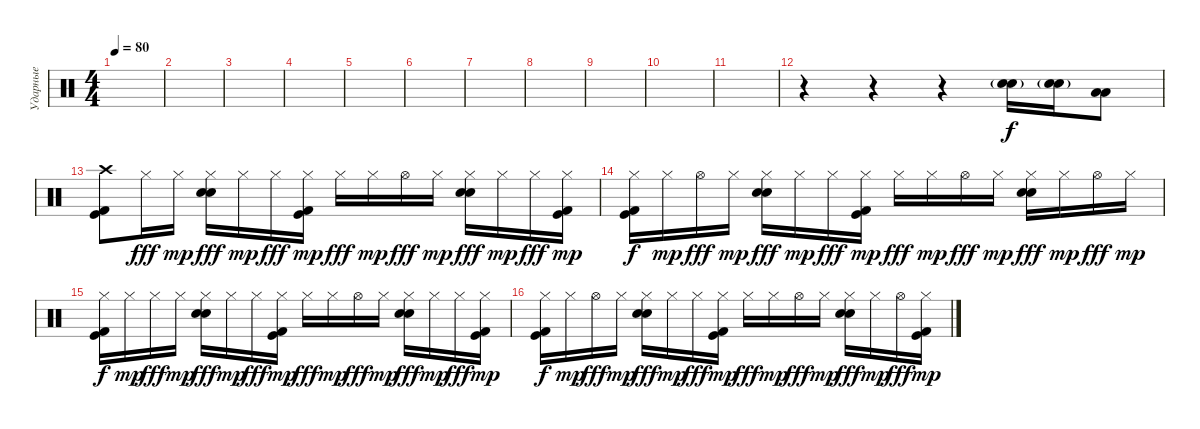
\track ("Ударные" "Ударные") {instrument percussion}
\staff {score}
\articulation defaults
\ts (4 4)
\tempo 80
\clef neutral
\ks c
|
|
|
|
|
|
|
|
|
|
|
r.4 r.4 r.4 ("Electric Snare (hit)"{g} "Snare (hit) 2"{g}).16 ("Electric Snare (hit)"{g} "Snare (hit) 2"{g}).16 ("Low Tom (hit)" "Low Floor Tom (hit)").8{dy f} |
("Kick (hit) 2" "Kick (hit)" "Crash high (hit)").8 "Hi-Hat (closed)".16{dy fff} "Hi-Hat (closed)".16{dy mp} ("Snare (hit) 2" "Electric Snare (hit)" "Hi-Hat (closed)").16{dy fff} "Hi-Hat (closed)".16{dy mp} "Hi-Hat (closed)".16{dy fff} ("Kick (hit) 2" "Kick (hit)" "Hi-Hat (closed)").16{dy mp} "Hi-Hat (closed)".16{dy fff} "Hi-Hat (closed)".16{dy mp} "Hi-Hat (open)".16{dy fff} "Hi-Hat (closed)".16{dy mp} ("Snare (hit) 2" "Electric Snare (hit)" "Hi-Hat (closed)").16{dy fff} "Hi-Hat (closed)".16{dy mp} "Hi-Hat (closed)".16{dy fff} ("Kick (hit) 2" "Kick (hit)" "Hi-Hat (closed)").16{dy mp} |
("Kick (hit) 2" "Kick (hit)" "Hi-Hat (closed)").16{dy f} "Hi-Hat (closed)".16{dy mp} "Hi-Hat (open)".16{dy fff} "Hi-Hat (closed)".16{dy mp} ("Snare (hit) 2" "Electric Snare (hit)" "Hi-Hat (closed)").16{dy fff} "Hi-Hat (closed)".16{dy mp} "Hi-Hat (closed)".16{dy fff} ("Kick (hit) 2" "Kick (hit)" "Hi-Hat (closed)").16{dy mp} "Hi-Hat (closed)".16{dy fff} "Hi-Hat (closed)".16{dy mp} "Hi-Hat (open)".16{dy fff} "Hi-Hat (closed)".16{dy mp} ("Snare (hit) 2" "Electric Snare (hit)" "Hi-Hat (closed)").16{dy fff} "Hi-Hat (closed)".16{dy mp} "Hi-Hat (open)".16{dy fff} "Hi-Hat (closed)".16{dy mp} |
("Kick (hit) 2" "Kick (hit)" "Hi-Hat (closed)").16{dy f} "Hi-Hat (closed)".16{dy mp} "Hi-Hat (closed)".16{dy fff} "Hi-Hat (closed)".16{dy mp} ("Snare (hit) 2" "Electric Snare (hit)" "Hi-Hat (closed)").16{dy fff} "Hi-Hat (closed)".16{dy mp} "Hi-Hat (closed)".16{dy fff} ("Kick (hit) 2" "Kick (hit)" "Hi-Hat (closed)").16{dy mp} "Hi-Hat (closed)".16{dy fff} "Hi-Hat (closed)".16{dy mp} "Hi-Hat (open)".16{dy fff} "Hi-Hat (closed)".16{dy mp} ("Snare (hit) 2" "Electric Snare (hit)" "Hi-Hat (closed)").16{dy fff} "Hi-Hat (closed)".16{dy mp} "Hi-Hat (closed)".16{dy fff} ("Kick (hit) 2" "Kick (hit)" "Hi-Hat (closed)").16{dy mp} |
("Kick (hit) 2" "Kick (hit)" "Hi-Hat (closed)").16{dy f} "Hi-Hat (closed)".16{dy mp} "Hi-Hat (open)".16{dy fff} "Hi-Hat (closed)".16{dy mp} ("Snare (hit) 2" "Electric Snare (hit)" "Hi-Hat (closed)").16{dy fff} "Hi-Hat (closed)".16{dy mp} "Hi-Hat (closed)".16{dy fff} ("Kick (hit) 2" "Kick (hit)" "Hi-Hat (closed)").16{dy mp} "Hi-Hat (closed)".16{dy fff} "Hi-Hat (closed)".16{dy mp} "Hi-Hat (open)".16{dy fff} "Hi-Hat (closed)".16{dy mp} ("Snare (hit) 2" "Electric Snare (hit)" "Hi-Hat (closed)").16{dy fff} "Hi-Hat (closed)".16{dy mp} "Hi-Hat (open)".16{dy fff} ("Kick (hit) 2" "Kick (hit)" "Hi-Hat (closed)").16{dy mp}
